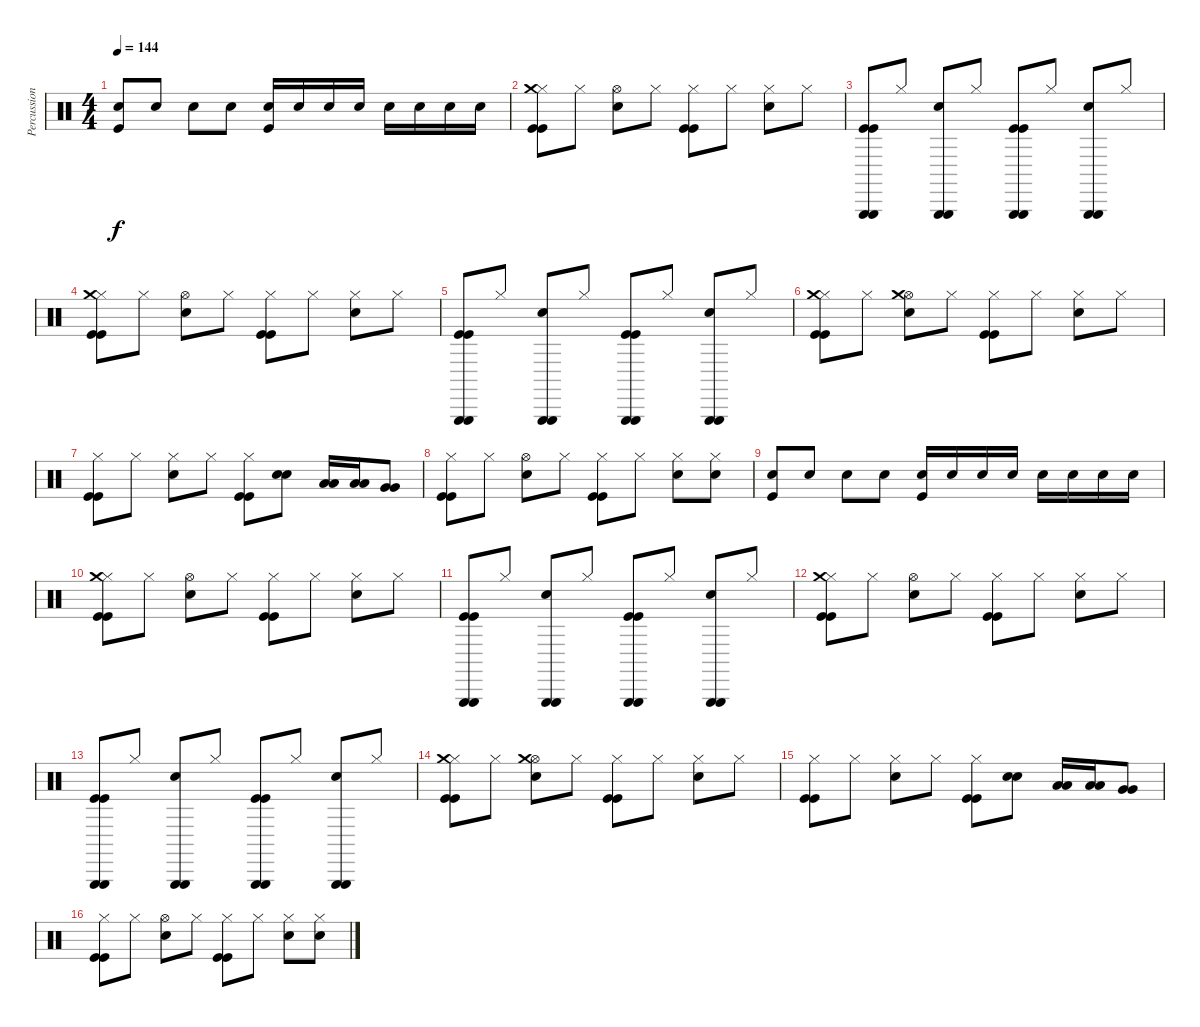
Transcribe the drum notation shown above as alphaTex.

\track ("Percussion" "Percussion") {instrument percussion}
\staff {score}
\articulation defaults
\ts (4 4)
\tempo 144
\clef neutral
\ks c
("Snare (hit) 2" "Kick (hit)").8{dy f} "Snare (hit) 2".8 "Snare (hit) 2".8 "Snare (hit) 2".8 ("Snare (hit) 2" "Kick (hit)").16 "Snare (hit) 2".16 "Snare (hit) 2".16 "Snare (hit) 2".16 "Snare (hit) 2".16 "Snare (hit) 2".16 "Snare (hit) 2".16 "Snare (hit) 2".16 |
("Hi-Hat (closed)" "Kick (hit)" "Kick (hit)" "Crash medium (hit)").8 "Hi-Hat (closed)".8 ("Hi-Hat (open)" "Snare (hit) 2").8 "Hi-Hat (closed)".8 ("Hi-Hat (closed)" "Kick (hit)" "Kick (hit)").8 "Hi-Hat (closed)".8 ("Hi-Hat (closed)" "Snare (hit) 2").8 "Hi-Hat (closed)".8 |
("Triangle (hit)" "Kick (hit)" "Kick (hit)" "Triangle (hit)").8 "Hi-Hat (closed)".8 ("Triangle (hit)" "Snare (hit) 2" "Triangle (hit)").8 "Hi-Hat (closed)".8 ("Triangle (hit)" "Kick (hit)" "Kick (hit)" "Triangle (hit)").8 "Hi-Hat (closed)".8 ("Triangle (hit)" "Snare (hit) 2" "Triangle (hit)").8 "Hi-Hat (closed)".8 |
("Hi-Hat (closed)" "Kick (hit)" "Kick (hit)" "Crash medium (hit)").8 "Hi-Hat (closed)".8 ("Hi-Hat (open)" "Snare (hit) 2").8 "Hi-Hat (closed)".8 ("Hi-Hat (closed)" "Kick (hit)" "Kick (hit)").8 "Hi-Hat (closed)".8 ("Hi-Hat (closed)" "Snare (hit) 2").8 "Hi-Hat (closed)".8 |
("Triangle (hit)" "Kick (hit)" "Kick (hit)" "Triangle (hit)").8 "Hi-Hat (closed)".8 ("Triangle (hit)" "Snare (hit) 2" "Triangle (hit)").8 "Hi-Hat (closed)".8 ("Triangle (hit)" "Kick (hit)" "Kick (hit)" "Triangle (hit)").8 "Hi-Hat (closed)".8 ("Triangle (hit)" "Snare (hit) 2" "Triangle (hit)").8 "Hi-Hat (closed)".8 |
("Hi-Hat (closed)" "Kick (hit)" "Kick (hit)" "Crash medium (hit)").8 "Hi-Hat (closed)".8 ("Hi-Hat (open)" "Snare (hit) 2" "Crash medium (hit)").8 "Hi-Hat (closed)".8 ("Hi-Hat (closed)" "Kick (hit)" "Kick (hit)").8 "Hi-Hat (closed)".8 ("Hi-Hat (closed)" "Snare (hit) 2").8 "Hi-Hat (closed)".8 |
("Hi-Hat (closed)" "Kick (hit)" "Kick (hit)").8 "Hi-Hat (closed)".8 ("Hi-Hat (closed)" "Snare (hit) 2").8 "Hi-Hat (closed)".8 ("Hi-Hat (closed)" "Kick (hit)" "Kick (hit)").8 ("Snare (hit) 2" "Snare (hit) 2").8 ("Low Floor Tom (hit)" "Low Floor Tom (hit)").16 ("Low Floor Tom (hit)" "Low Floor Tom (hit)").16 ("Very Low Tom (hit)" "Very Low Tom (hit)").8 |
("Hi-Hat (closed)" "Kick (hit)" "Kick (hit)").8 "Hi-Hat (closed)".8 ("Hi-Hat (open)" "Snare (hit) 2").8 "Hi-Hat (closed)".8 ("Hi-Hat (closed)" "Kick (hit)" "Kick (hit)").8 "Hi-Hat (closed)".8 ("Hi-Hat (closed)" "Snare (hit) 2").8 ("Hi-Hat (closed)" "Snare (hit) 2").8 |
("Snare (hit) 2" "Kick (hit)").8 "Snare (hit) 2".8 "Snare (hit) 2".8 "Snare (hit) 2".8 ("Snare (hit) 2" "Kick (hit)").16 "Snare (hit) 2".16 "Snare (hit) 2".16 "Snare (hit) 2".16 "Snare (hit) 2".16 "Snare (hit) 2".16 "Snare (hit) 2".16 "Snare (hit) 2".16 |
("Hi-Hat (closed)" "Kick (hit)" "Kick (hit)" "Crash medium (hit)").8 "Hi-Hat (closed)".8 ("Hi-Hat (open)" "Snare (hit) 2").8 "Hi-Hat (closed)".8 ("Hi-Hat (closed)" "Kick (hit)" "Kick (hit)").8 "Hi-Hat (closed)".8 ("Hi-Hat (closed)" "Snare (hit) 2").8 "Hi-Hat (closed)".8 |
("Triangle (hit)" "Kick (hit)" "Kick (hit)" "Triangle (hit)").8 "Hi-Hat (closed)".8 ("Triangle (hit)" "Snare (hit) 2" "Triangle (hit)").8 "Hi-Hat (closed)".8 ("Triangle (hit)" "Kick (hit)" "Kick (hit)" "Triangle (hit)").8 "Hi-Hat (closed)".8 ("Triangle (hit)" "Snare (hit) 2" "Triangle (hit)").8 "Hi-Hat (closed)".8 |
("Hi-Hat (closed)" "Kick (hit)" "Kick (hit)" "Crash medium (hit)").8 "Hi-Hat (closed)".8 ("Hi-Hat (open)" "Snare (hit) 2").8 "Hi-Hat (closed)".8 ("Hi-Hat (closed)" "Kick (hit)" "Kick (hit)").8 "Hi-Hat (closed)".8 ("Hi-Hat (closed)" "Snare (hit) 2").8 "Hi-Hat (closed)".8 |
("Triangle (hit)" "Kick (hit)" "Kick (hit)" "Triangle (hit)").8 "Hi-Hat (closed)".8 ("Triangle (hit)" "Snare (hit) 2" "Triangle (hit)").8 "Hi-Hat (closed)".8 ("Triangle (hit)" "Kick (hit)" "Kick (hit)" "Triangle (hit)").8 "Hi-Hat (closed)".8 ("Triangle (hit)" "Snare (hit) 2" "Triangle (hit)").8 "Hi-Hat (closed)".8 |
("Hi-Hat (closed)" "Kick (hit)" "Kick (hit)" "Crash medium (hit)").8 "Hi-Hat (closed)".8 ("Hi-Hat (open)" "Snare (hit) 2" "Crash medium (hit)").8 "Hi-Hat (closed)".8 ("Hi-Hat (closed)" "Kick (hit)" "Kick (hit)").8 "Hi-Hat (closed)".8 ("Hi-Hat (closed)" "Snare (hit) 2").8 "Hi-Hat (closed)".8 |
("Hi-Hat (closed)" "Kick (hit)" "Kick (hit)").8 "Hi-Hat (closed)".8 ("Hi-Hat (closed)" "Snare (hit) 2").8 "Hi-Hat (closed)".8 ("Hi-Hat (closed)" "Kick (hit)" "Kick (hit)").8 ("Snare (hit) 2" "Snare (hit) 2").8 ("Low Floor Tom (hit)" "Low Floor Tom (hit)").16 ("Low Floor Tom (hit)" "Low Floor Tom (hit)").16 ("Very Low Tom (hit)" "Very Low Tom (hit)").8 |
("Hi-Hat (closed)" "Kick (hit)" "Kick (hit)").8 "Hi-Hat (closed)".8 ("Hi-Hat (open)" "Snare (hit) 2").8 "Hi-Hat (closed)".8 ("Hi-Hat (closed)" "Kick (hit)" "Kick (hit)").8 "Hi-Hat (closed)".8 ("Hi-Hat (closed)" "Snare (hit) 2").8 ("Hi-Hat (closed)" "Snare (hit) 2").8
